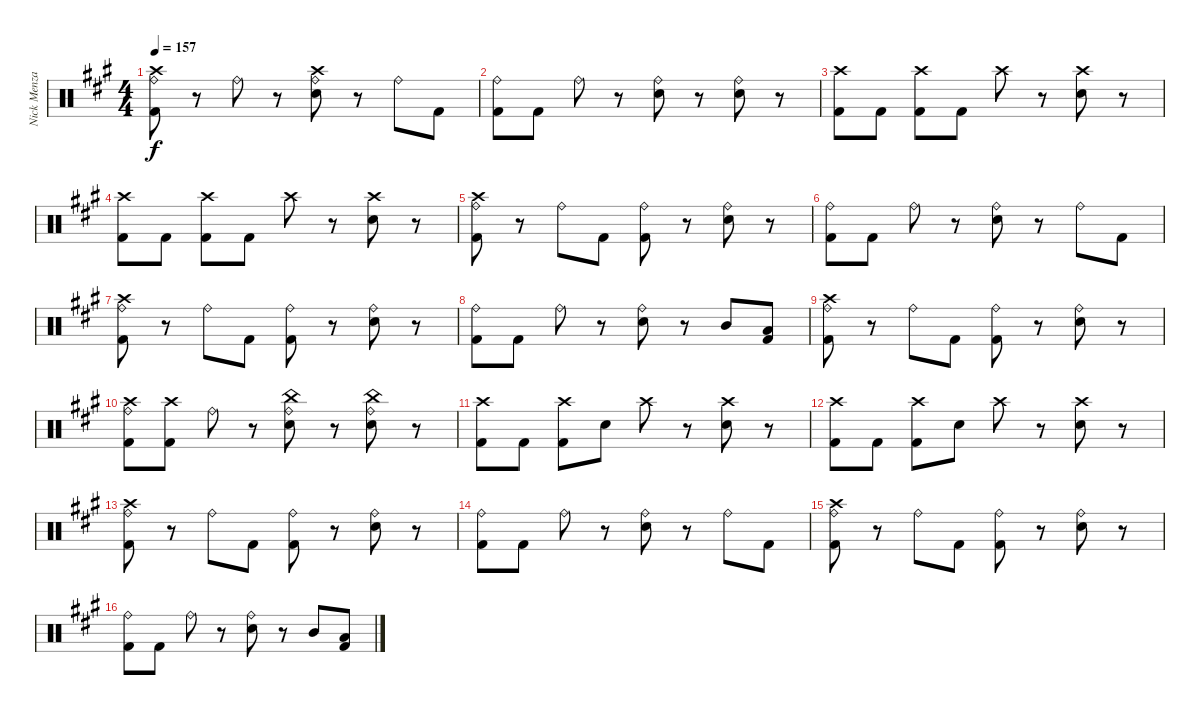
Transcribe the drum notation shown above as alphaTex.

\track ("Nick Menza" "Nick Menza") {instrument percussion}
\staff {score}
\articulation defaults
\ts (4 4)
\tempo 157
\clef neutral
\ks a
("Ride (bell)" "Crash high (hit)" "Kick (hit) 2").8{dy f} r.8 "Ride (bell)".8 r.8 ("Ride (bell)" "Snare (hit) 2" "Crash high (hit)").8 r.8 "Ride (bell)".8 "Kick (hit) 2".8 |
("Ride (bell)" "Kick (hit) 2").8 "Kick (hit) 2".8 "Ride (bell)".8 r.8 ("Ride (bell)" "Snare (hit) 2").8 r.8 ("Ride (bell)" "Snare (hit) 2").8 r.8 |
("Crash high (hit)" "Kick (hit) 2").8 "Kick (hit) 2".8 ("Crash high (hit)" "Kick (hit) 2").8 "Kick (hit) 2".8 "Crash high (hit)".8 r.8 ("Crash high (hit)" "Snare (hit) 2").8 r.8 |
("Crash high (hit)" "Kick (hit) 2").8 "Kick (hit) 2".8 ("Crash high (hit)" "Kick (hit) 2").8 "Kick (hit) 2".8 "Crash high (hit)".8 r.8 ("Crash high (hit)" "Snare (hit) 2").8 r.8 |
("Ride (bell)" "Kick (hit) 2" "Crash high (hit)").8 r.8 "Ride (bell)".8 "Kick (hit) 2".8 ("Ride (bell)" "Kick (hit) 2").8 r.8 ("Ride (bell)" "Snare (hit) 2").8 r.8 |
("Ride (bell)" "Kick (hit) 2").8 "Kick (hit) 2".8 "Ride (bell)".8 r.8 ("Ride (bell)" "Snare (hit) 2").8 r.8 "Ride (bell)".8 "Kick (hit) 2".8 |
("Ride (bell)" "Kick (hit) 2" "Crash high (hit)").8 r.8 "Ride (bell)".8 "Kick (hit) 2".8 ("Ride (bell)" "Kick (hit) 2").8 r.8 ("Ride (bell)" "Snare (hit) 2").8 r.8 |
("Ride (bell)" "Kick (hit) 2").8 "Kick (hit) 2".8 "Ride (bell)".8 r.8 ("Ride (bell)" "Snare (hit) 2").8 r.8 "Mid Tom (hit)".8 ("Low Tom (hit)" "Kick (hit) 2").8 |
("Ride (bell)" "Kick (hit) 2" "Crash high (hit)").8 r.8 "Ride (bell)".8 "Kick (hit) 2".8 ("Ride (bell)" "Kick (hit) 2").8 r.8 ("Ride (bell)" "Snare (hit) 2").8 r.8 |
("Ride (bell)" "Kick (hit) 2" "Crash high (hit)").8 ("Kick (hit) 2" "Crash high (hit)").8 "Ride (bell)".8 r.8 ("Ride (bell)" "Snare (hit) 2" "China (hit)").8 r.8 ("Ride (bell)" "Snare (hit) 2" "China (hit)").8 r.8 |
("Crash high (hit)" "Kick (hit) 2").8 "Kick (hit) 2".8 ("Crash high (hit)" "Kick (hit) 2").8 "Snare (hit) 2".8 "Crash high (hit)".8 r.8 ("Crash high (hit)" "Snare (hit) 2").8 r.8 |
("Crash high (hit)" "Kick (hit) 2").8 "Kick (hit) 2".8 ("Crash high (hit)" "Kick (hit) 2").8 "Snare (hit) 2".8 "Crash high (hit)".8 r.8 ("Crash high (hit)" "Snare (hit) 2").8 r.8 |
("Ride (bell)" "Kick (hit) 2" "Crash high (hit)").8 r.8 "Ride (bell)".8 "Kick (hit) 2".8 ("Ride (bell)" "Kick (hit) 2").8 r.8 ("Ride (bell)" "Snare (hit) 2").8 r.8 |
("Ride (bell)" "Kick (hit) 2").8 "Kick (hit) 2".8 "Ride (bell)".8 r.8 ("Ride (bell)" "Snare (hit) 2").8 r.8 "Ride (bell)".8 "Kick (hit) 2".8 |
("Ride (bell)" "Kick (hit) 2" "Crash high (hit)").8 r.8 "Ride (bell)".8 "Kick (hit) 2".8 ("Ride (bell)" "Kick (hit) 2").8 r.8 ("Ride (bell)" "Snare (hit) 2").8 r.8 |
("Ride (bell)" "Kick (hit) 2").8 "Kick (hit) 2".8 "Ride (bell)".8 r.8 ("Ride (bell)" "Snare (hit) 2").8 r.8 "Mid Tom (hit)".8 ("Low Tom (hit)" "Kick (hit) 2").8
